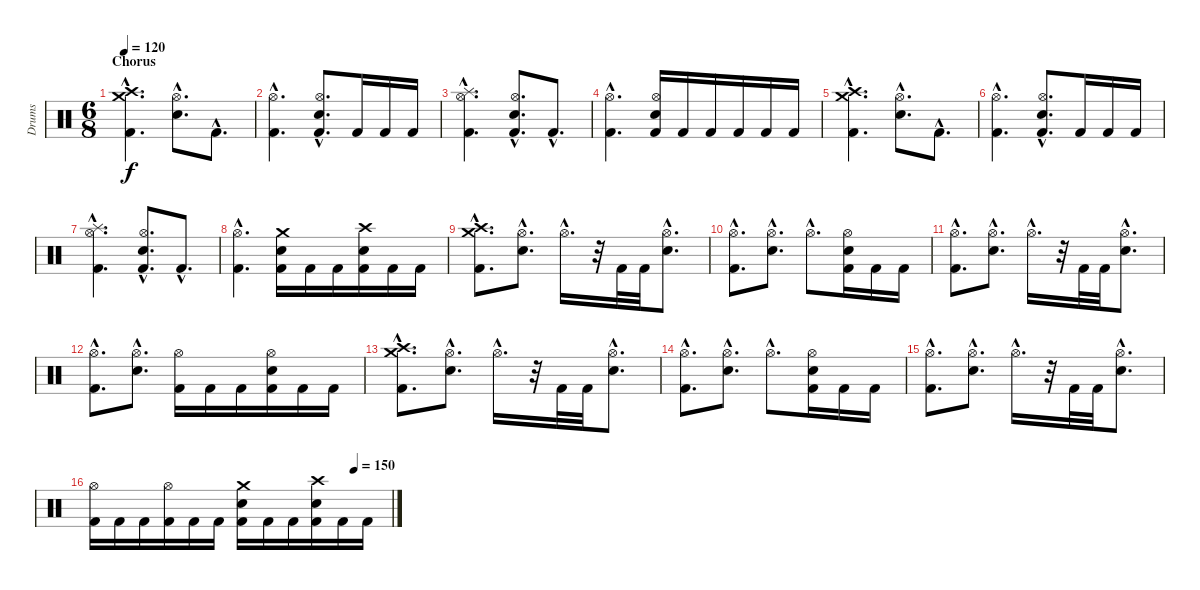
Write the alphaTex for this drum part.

\track ("Drums" "Drums") {instrument percussion}
\staff {score}
\articulation defaults
\ts (6 8)
\section ("" "Chorus")
\tempo 120
\clef neutral
\ks c
("Crash medium (hit)"{hac} "Crash high (hit)"{hac} "Kick (hit) 2"{hac}).4{d dy f} ("Hi-Hat (open)"{hac} "Snare (hit) 2"{hac}).8{d} "Kick (hit) 2"{hac}.8{d} |
("Hi-Hat (open)"{hac} "Kick (hit) 2"{hac}).4{d} ("Hi-Hat (open)"{hac} "Snare (hit) 2"{hac} "Kick (hit) 2"{hac}).8{d} "Kick (hit) 2".16 "Kick (hit) 2".16 "Kick (hit) 2".16 |
("Hi-Hat (open)"{hac} "Splash (hit)"{hac} "Kick (hit) 2"{hac}).4{d} ("Hi-Hat (open)"{hac} "Snare (hit) 2"{hac} "Kick (hit) 2"{hac}).8{d} "Kick (hit) 2"{hac}.8{d} |
("Hi-Hat (open)"{hac} "Kick (hit) 2"{hac}).4{d} ("Hi-Hat (open)" "Snare (hit) 2" "Kick (hit) 2").16 "Kick (hit) 2".16 "Kick (hit) 2".16 "Kick (hit) 2".16 "Kick (hit) 2".16 "Kick (hit) 2".16 |
("Crash medium (hit)"{hac} "Crash high (hit)"{hac} "Kick (hit) 2"{hac}).4{d} ("Hi-Hat (open)"{hac} "Snare (hit) 2"{hac}).8{d} "Kick (hit) 2"{hac}.8{d} |
("Hi-Hat (open)"{hac} "Kick (hit) 2"{hac}).4{d} ("Hi-Hat (open)"{hac} "Snare (hit) 2"{hac} "Kick (hit) 2"{hac}).8{d} "Kick (hit) 2".16 "Kick (hit) 2".16 "Kick (hit) 2".16 |
("Hi-Hat (open)"{hac} "Splash (hit)"{hac} "Kick (hit) 2"{hac}).4{d} ("Hi-Hat (open)"{hac} "Snare (hit) 2"{hac} "Kick (hit) 2"{hac}).8{d} "Kick (hit) 2"{hac}.8{d} |
("Hi-Hat (open)"{hac} "Kick (hit) 2"{hac}).4{d} ("Crash medium (hit)" "Snare (hit) 2" "Kick (hit) 2").16 "Kick (hit) 2".16 "Kick (hit) 2".16 ("Crash high (hit)" "Snare (hit) 2" "Kick (hit) 2").16 "Kick (hit) 2".16 "Kick (hit) 2".16 |
("Crash medium (hit)"{hac} "Crash high (hit)"{hac} "Kick (hit) 2"{hac}).8{d} ("Hi-Hat (open)"{hac} "Snare (hit) 2"{hac}).8{d} "Hi-Hat (open)"{hac}.16{d} r.32 "Kick (hit) 2".32 "Kick (hit) 2".32 ("Hi-Hat (open)"{hac} "Snare (hit) 2"{hac}).8{d} |
("Hi-Hat (open)"{hac} "Kick (hit) 2"{hac}).8{d} ("Hi-Hat (open)"{hac} "Snare (hit) 2"{hac}).8{d} "Hi-Hat (open)"{hac}.8{d} ("Hi-Hat (open)" "Snare (hit) 2" "Kick (hit) 2").16 "Kick (hit) 2".16 "Kick (hit) 2".16 |
("Hi-Hat (open)"{hac} "Kick (hit) 2"{hac}).8{d} ("Hi-Hat (open)"{hac} "Snare (hit) 2"{hac}).8{d} "Hi-Hat (open)"{hac}.16{d} r.32 "Kick (hit) 2".32 "Kick (hit) 2".32 ("Hi-Hat (open)"{hac} "Snare (hit) 2"{hac}).8{d} |
("Hi-Hat (open)"{hac} "Kick (hit) 2"{hac}).8{d} ("Hi-Hat (open)"{hac} "Snare (hit) 2"{hac}).8{d} ("Hi-Hat (open)" "Kick (hit) 2").16 "Kick (hit) 2".16 "Kick (hit) 2".16 ("Hi-Hat (open)" "Snare (hit) 2" "Kick (hit) 2").16 "Kick (hit) 2".16 "Kick (hit) 2".16 |
("Crash medium (hit)"{hac} "Crash high (hit)"{hac} "Kick (hit) 2"{hac}).8{d} ("Hi-Hat (open)"{hac} "Snare (hit) 2"{hac}).8{d} "Hi-Hat (open)"{hac}.16{d} r.32 "Kick (hit) 2".32 "Kick (hit) 2".32 ("Hi-Hat (open)"{hac} "Snare (hit) 2"{hac}).8{d} |
("Hi-Hat (open)"{hac} "Kick (hit) 2"{hac}).8{d} ("Hi-Hat (open)"{hac} "Snare (hit) 2"{hac}).8{d} "Hi-Hat (open)"{hac}.8{d} ("Hi-Hat (open)" "Snare (hit) 2" "Kick (hit) 2").16 "Kick (hit) 2".16 "Kick (hit) 2".16 |
("Hi-Hat (open)"{hac} "Kick (hit) 2"{hac}).8{d} ("Hi-Hat (open)"{hac} "Snare (hit) 2"{hac}).8{d} "Hi-Hat (open)"{hac}.16{d} r.32 "Kick (hit) 2".32 "Kick (hit) 2".32 ("Hi-Hat (open)"{hac} "Snare (hit) 2"{hac}).8{d} |
\tempo (150 0.875)
("Hi-Hat (open)" "Kick (hit) 2").16 "Kick (hit) 2".16 "Kick (hit) 2".16 ("Hi-Hat (open)" "Kick (hit) 2").16 "Kick (hit) 2".16 "Kick (hit) 2".16 ("Crash medium (hit)" "Snare (hit) 2" "Kick (hit) 2").16 "Kick (hit) 2".16 "Kick (hit) 2".16 ("Crash high (hit)" "Snare (hit) 2" "Kick (hit) 2").16 "Kick (hit) 2".16 "Kick (hit) 2".16
